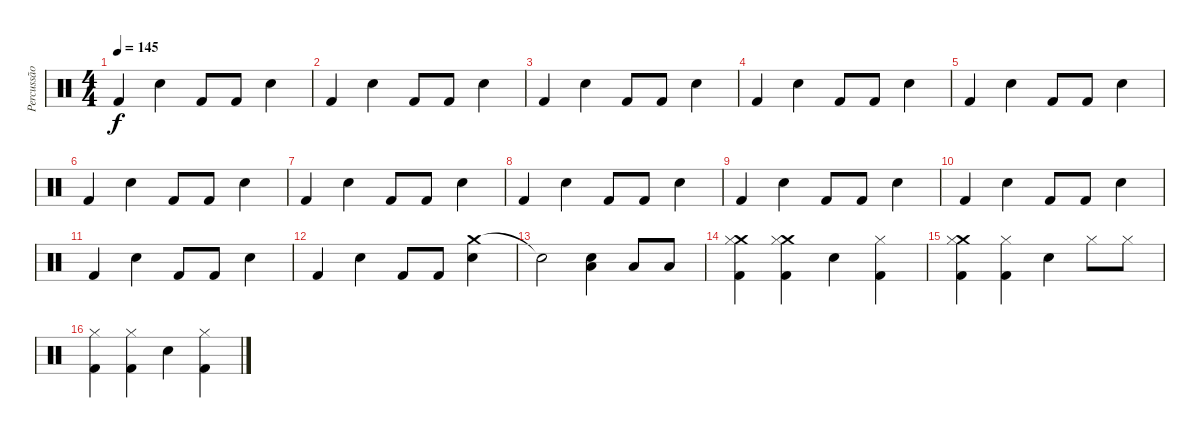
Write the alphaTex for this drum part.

\track ("Percussão" "Percussão") {instrument percussion}
\staff {score}
\articulation defaults
\ts (4 4)
\tempo 145
\clef neutral
\ks c "Kick (hit) 2".4{dy f} "Snare (hit) 2".4 "Kick (hit) 2".8 "Kick (hit) 2".8 "Snare (hit) 2".4
|
"Kick (hit) 2".4 "Snare (hit) 2".4 "Kick (hit) 2".8 "Kick (hit) 2".8 "Snare (hit) 2".4 |
"Kick (hit) 2".4 "Snare (hit) 2".4 "Kick (hit) 2".8 "Kick (hit) 2".8 "Snare (hit) 2".4 |
"Kick (hit) 2".4 "Snare (hit) 2".4 "Kick (hit) 2".8 "Kick (hit) 2".8 "Snare (hit) 2".4 |
"Kick (hit) 2".4 "Snare (hit) 2".4 "Kick (hit) 2".8 "Kick (hit) 2".8 "Snare (hit) 2".4 |
"Kick (hit) 2".4 "Snare (hit) 2".4 "Kick (hit) 2".8 "Kick (hit) 2".8 "Snare (hit) 2".4 |
"Kick (hit) 2".4 "Snare (hit) 2".4 "Kick (hit) 2".8 "Kick (hit) 2".8 "Snare (hit) 2".4 |
"Kick (hit) 2".4 "Snare (hit) 2".4 "Kick (hit) 2".8 "Kick (hit) 2".8 "Snare (hit) 2".4 |
"Kick (hit) 2".4 "Snare (hit) 2".4 "Kick (hit) 2".8 "Kick (hit) 2".8 "Snare (hit) 2".4 |
"Kick (hit) 2".4 "Snare (hit) 2".4 "Kick (hit) 2".8 "Kick (hit) 2".8 "Snare (hit) 2".4 |
"Kick (hit) 2".4 "Snare (hit) 2".4 "Kick (hit) 2".8 "Kick (hit) 2".8 "Snare (hit) 2".4 |
"Kick (hit) 2".4 "Snare (hit) 2".4 "Kick (hit) 2".8 "Kick (hit) 2".8 ("Crash medium (hit)" "Snare (hit) 2").4 |
"Snare (hit)"{t}.2{volume 16} ("Low Floor Tom (hit)" "Snare (hit) 2").4 "Low Floor Tom (hit)".8 "Low Floor Tom (hit)".8 |
("Crash medium (hit)" "Hi-Hat (closed)" "Kick (hit) 2").4{volume 13} ("Crash medium (hit)" "Hi-Hat (closed)" "Kick (hit) 2").4 "Snare (hit) 2".4 ("Hi-Hat (closed)" "Kick (hit) 2").4 |
("Crash medium (hit)" "Hi-Hat (closed)" "Kick (hit) 2").4 ("Hi-Hat (closed)" "Kick (hit) 2").4 "Snare (hit) 2".4 "Hi-Hat (closed)".8 "Hi-Hat (closed)".8 |
("Hi-Hat (closed)" "Kick (hit) 2").4 ("Hi-Hat (closed)" "Kick (hit) 2").4 "Snare (hit) 2".4 ("Hi-Hat (closed)" "Kick (hit) 2").4
